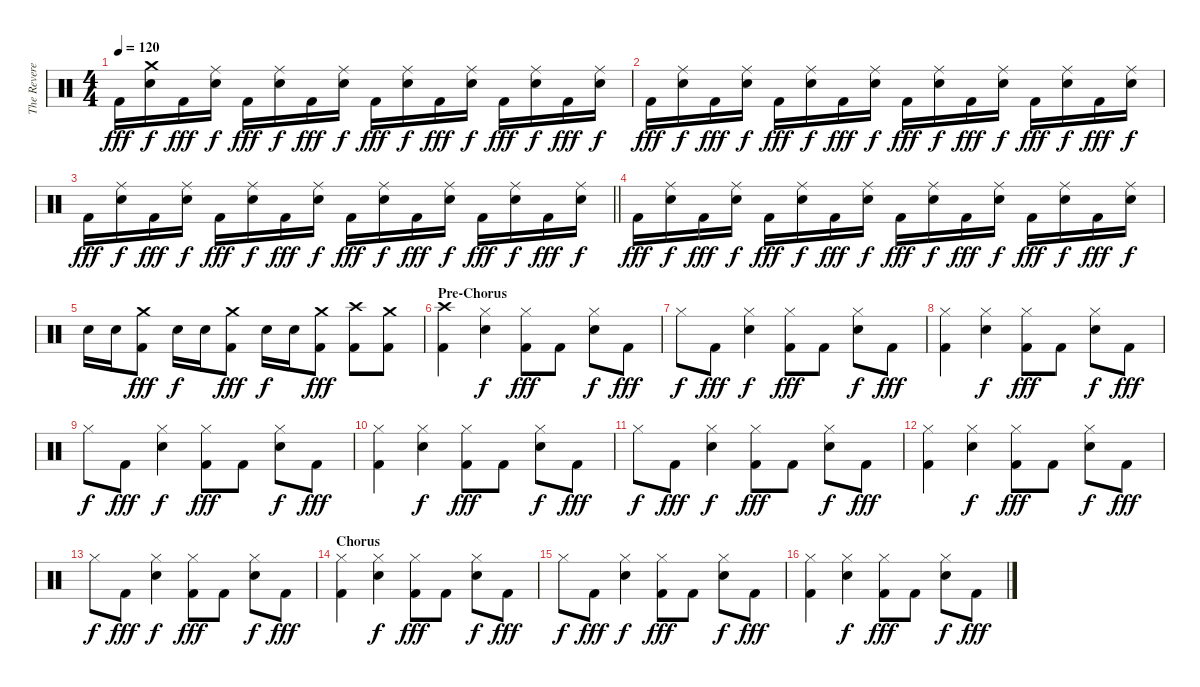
\track ("The Reverend" "The Revere") {instrument percussion}
\staff {score}
\articulation defaults
\ts (4 4)
\tempo 120
\clef neutral
\ks c "Kick (hit) 2".16{dy fff}
("Crash medium (hit)" "Electric Snare (hit)").16{dy f} "Kick (hit) 2".16{dy fff} ("Ride (middle)" "Electric Snare (hit)").16{dy f} "Kick (hit) 2".16{dy fff} ("Ride (middle)" "Electric Snare (hit)").16{dy f} "Kick (hit) 2".16{dy fff} ("Ride (middle)" "Electric Snare (hit)").16{dy f} "Kick (hit) 2".16{dy fff} ("Ride (middle)" "Electric Snare (hit)").16{dy f} "Kick (hit) 2".16{dy fff} ("Ride (middle)" "Electric Snare (hit)").16{dy f} "Kick (hit) 2".16{dy fff} ("Ride (middle)" "Electric Snare (hit)").16{dy f} "Kick (hit) 2".16{dy fff} ("Ride (middle)" "Electric Snare (hit)").16{dy f} |
"Kick (hit) 2".16{dy fff} ("Ride (middle)" "Electric Snare (hit)").16{dy f} "Kick (hit) 2".16{dy fff} ("Ride (middle)" "Electric Snare (hit)").16{dy f} "Kick (hit) 2".16{dy fff} ("Ride (middle)" "Electric Snare (hit)").16{dy f} "Kick (hit) 2".16{dy fff} ("Ride (middle)" "Electric Snare (hit)").16{dy f} "Kick (hit) 2".16{dy fff} ("Ride (middle)" "Electric Snare (hit)").16{dy f} "Kick (hit) 2".16{dy fff} ("Ride (middle)" "Electric Snare (hit)").16{dy f} "Kick (hit) 2".16{dy fff} ("Ride (middle)" "Electric Snare (hit)").16{dy f} "Kick (hit) 2".16{dy fff} ("Ride (middle)" "Electric Snare (hit)").16{dy f} |
\barLineRight lightlight "Kick (hit) 2".16{dy fff}
("Ride (middle)" "Electric Snare (hit)").16{dy f} "Kick (hit) 2".16{dy fff} ("Ride (middle)" "Electric Snare (hit)").16{dy f} "Kick (hit) 2".16{dy fff} ("Ride (middle)" "Electric Snare (hit)").16{dy f} "Kick (hit) 2".16{dy fff} ("Ride (middle)" "Electric Snare (hit)").16{dy f} "Kick (hit) 2".16{dy fff} ("Ride (middle)" "Electric Snare (hit)").16{dy f} "Kick (hit) 2".16{dy fff} ("Ride (middle)" "Electric Snare (hit)").16{dy f} "Kick (hit) 2".16{dy fff} ("Ride (middle)" "Electric Snare (hit)").16{dy f} "Kick (hit) 2".16{dy fff} ("Ride (middle)" "Electric Snare (hit)").16{dy f} |
"Kick (hit) 2".16{dy fff} ("Ride (middle)" "Electric Snare (hit)").16{dy f} "Kick (hit) 2".16{dy fff} ("Ride (middle)" "Electric Snare (hit)").16{dy f} "Kick (hit) 2".16{dy fff} ("Ride (middle)" "Electric Snare (hit)").16{dy f} "Kick (hit) 2".16{dy fff} ("Ride (middle)" "Electric Snare (hit)").16{dy f} "Kick (hit) 2".16{dy fff} ("Ride (middle)" "Electric Snare (hit)").16{dy f} "Kick (hit) 2".16{dy fff} ("Ride (middle)" "Electric Snare (hit)").16{dy f} "Kick (hit) 2".16{dy fff} ("Ride (middle)" "Electric Snare (hit)").16{dy f} "Kick (hit) 2".16{dy fff} ("Ride (middle)" "Electric Snare (hit)").16{dy f} |
"Electric Snare (hit)".16 "Electric Snare (hit)".16 ("Crash medium (hit)" "Kick (hit) 2").8{dy fff} "Electric Snare (hit)".16{dy f} "Electric Snare (hit)".16 ("Crash medium (hit)" "Kick (hit) 2").8{dy fff} "Electric Snare (hit)".16{dy f} "Electric Snare (hit)".16 ("Crash medium (hit)" "Kick (hit) 2").8{dy fff} ("Crash high (hit)" "Kick (hit) 2").8 ("Crash medium (hit)" "Kick (hit) 2").8 |
\section ("" "Pre-Chorus")
("Crash high (hit)" "Kick (hit) 2").4 ("Hi-Hat (closed)" "Electric Snare (hit)").4{dy f} ("Hi-Hat (closed)" "Kick (hit) 2").8{dy fff} "Kick (hit) 2".8 ("Hi-Hat (closed)" "Electric Snare (hit)").8{dy f} "Kick (hit) 2".8{dy fff} |
"Hi-Hat (closed)".8{dy f} "Kick (hit) 2".8{dy fff} ("Hi-Hat (closed)" "Electric Snare (hit)").4{dy f} ("Hi-Hat (closed)" "Kick (hit) 2").8{dy fff} "Kick (hit) 2".8 ("Hi-Hat (closed)" "Electric Snare (hit)").8{dy f} "Kick (hit) 2".8{dy fff} |
("Hi-Hat (closed)" "Kick (hit) 2").4 ("Hi-Hat (closed)" "Electric Snare (hit)").4{dy f} ("Hi-Hat (closed)" "Kick (hit) 2").8{dy fff} "Kick (hit) 2".8 ("Hi-Hat (closed)" "Electric Snare (hit)").8{dy f} "Kick (hit) 2".8{dy fff} |
"Hi-Hat (closed)".8{dy f} "Kick (hit) 2".8{dy fff} ("Hi-Hat (closed)" "Electric Snare (hit)").4{dy f} ("Hi-Hat (closed)" "Kick (hit) 2").8{dy fff} "Kick (hit) 2".8 ("Hi-Hat (closed)" "Electric Snare (hit)").8{dy f} "Kick (hit) 2".8{dy fff} |
("Hi-Hat (closed)" "Kick (hit) 2").4 ("Hi-Hat (closed)" "Electric Snare (hit)").4{dy f} ("Hi-Hat (closed)" "Kick (hit) 2").8{dy fff} "Kick (hit) 2".8 ("Hi-Hat (closed)" "Electric Snare (hit)").8{dy f} "Kick (hit) 2".8{dy fff} |
"Hi-Hat (closed)".8{dy f} "Kick (hit) 2".8{dy fff} ("Hi-Hat (closed)" "Electric Snare (hit)").4{dy f} ("Hi-Hat (closed)" "Kick (hit) 2").8{dy fff} "Kick (hit) 2".8 ("Hi-Hat (closed)" "Electric Snare (hit)").8{dy f} "Kick (hit) 2".8{dy fff} |
("Hi-Hat (closed)" "Kick (hit) 2").4 ("Hi-Hat (closed)" "Electric Snare (hit)").4{dy f} ("Hi-Hat (closed)" "Kick (hit) 2").8{dy fff} "Kick (hit) 2".8 ("Hi-Hat (closed)" "Electric Snare (hit)").8{dy f} "Kick (hit) 2".8{dy fff} |
"Hi-Hat (closed)".8{dy f} "Kick (hit) 2".8{dy fff} ("Hi-Hat (closed)" "Electric Snare (hit)").4{dy f} ("Hi-Hat (closed)" "Kick (hit) 2").8{dy fff} "Kick (hit) 2".8 ("Hi-Hat (closed)" "Electric Snare (hit)").8{dy f} "Kick (hit) 2".8{dy fff} |
\section ("" "Chorus")
("Hi-Hat (closed)" "Kick (hit) 2").4 ("Hi-Hat (closed)" "Electric Snare (hit)").4{dy f} ("Hi-Hat (closed)" "Kick (hit) 2").8{dy fff} "Kick (hit) 2".8 ("Hi-Hat (closed)" "Electric Snare (hit)").8{dy f} "Kick (hit) 2".8{dy fff} |
"Hi-Hat (closed)".8{dy f} "Kick (hit) 2".8{dy fff} ("Hi-Hat (closed)" "Electric Snare (hit)").4{dy f} ("Hi-Hat (closed)" "Kick (hit) 2").8{dy fff} "Kick (hit) 2".8 ("Hi-Hat (closed)" "Electric Snare (hit)").8{dy f} "Kick (hit) 2".8{dy fff} |
("Hi-Hat (closed)" "Kick (hit) 2").4 ("Hi-Hat (closed)" "Electric Snare (hit)").4{dy f} ("Hi-Hat (closed)" "Kick (hit) 2").8{dy fff} "Kick (hit) 2".8 ("Hi-Hat (closed)" "Electric Snare (hit)").8{dy f} "Kick (hit) 2".8{dy fff}
